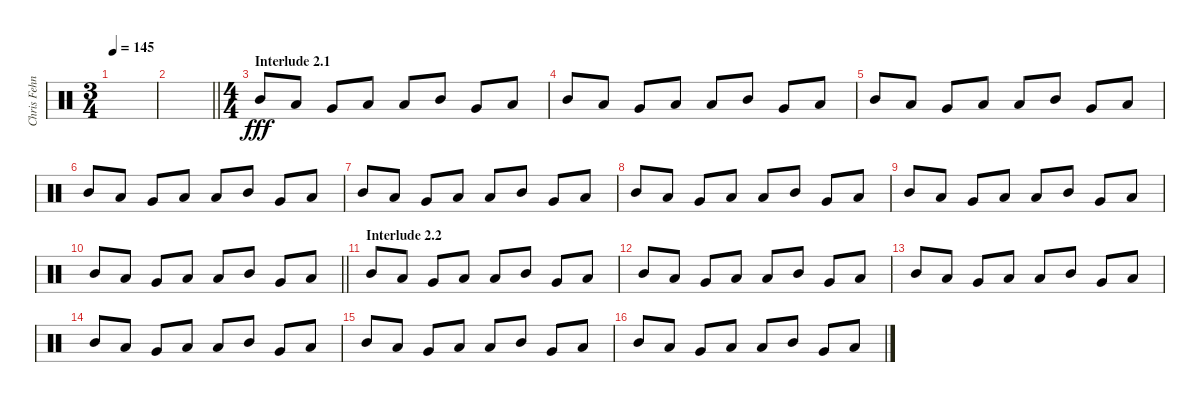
\track ("Chris Fehn" "Chris Fehn") {instrument percussion}
\staff {score}
\articulation defaults
\ts (3 4)
\tempo 145
\clef neutral
\ks c
|
\barLineRight lightlight
|
\ts (4 4)
\section ("" "Interlude 2.1")
"Mid Tom (hit)".8{dy fff} "Low Tom (hit)".8 "Very Low Tom (hit)".8 "Low Floor Tom (hit)".8 "Low Tom (hit)".8 "Mid Tom (hit)".8 "Very Low Tom (hit)".8 "Low Floor Tom (hit)".8 |
"Mid Tom (hit)".8 "Low Tom (hit)".8 "Very Low Tom (hit)".8 "Low Floor Tom (hit)".8 "Low Tom (hit)".8 "Mid Tom (hit)".8 "Very Low Tom (hit)".8 "Low Floor Tom (hit)".8 |
"Mid Tom (hit)".8 "Low Tom (hit)".8 "Very Low Tom (hit)".8 "Low Floor Tom (hit)".8 "Low Tom (hit)".8 "Mid Tom (hit)".8 "Very Low Tom (hit)".8 "Low Floor Tom (hit)".8 |
"Mid Tom (hit)".8 "Low Tom (hit)".8 "Very Low Tom (hit)".8 "Low Floor Tom (hit)".8 "Low Tom (hit)".8 "Mid Tom (hit)".8 "Very Low Tom (hit)".8 "Low Floor Tom (hit)".8 |
"Mid Tom (hit)".8 "Low Tom (hit)".8 "Very Low Tom (hit)".8 "Low Floor Tom (hit)".8 "Low Tom (hit)".8 "Mid Tom (hit)".8 "Very Low Tom (hit)".8 "Low Floor Tom (hit)".8 |
"Mid Tom (hit)".8 "Low Tom (hit)".8 "Very Low Tom (hit)".8 "Low Floor Tom (hit)".8 "Low Tom (hit)".8 "Mid Tom (hit)".8 "Very Low Tom (hit)".8 "Low Floor Tom (hit)".8 |
"Mid Tom (hit)".8 "Low Tom (hit)".8 "Very Low Tom (hit)".8 "Low Floor Tom (hit)".8 "Low Tom (hit)".8 "Mid Tom (hit)".8 "Very Low Tom (hit)".8 "Low Floor Tom (hit)".8 |
\barLineRight lightlight "Mid Tom (hit)".8 "Low Tom (hit)".8 "Very Low Tom (hit)".8 "Low Floor Tom (hit)".8 "Low Tom (hit)".8 "Mid Tom (hit)".8 "Very Low Tom (hit)".8 "Low Floor Tom (hit)".8
|
\section ("" "Interlude 2.2")
"Mid Tom (hit)".8 "Low Tom (hit)".8 "Very Low Tom (hit)".8 "Low Floor Tom (hit)".8 "Low Tom (hit)".8 "Mid Tom (hit)".8 "Very Low Tom (hit)".8 "Low Floor Tom (hit)".8 |
"Mid Tom (hit)".8 "Low Tom (hit)".8 "Very Low Tom (hit)".8 "Low Floor Tom (hit)".8 "Low Tom (hit)".8 "Mid Tom (hit)".8 "Very Low Tom (hit)".8 "Low Floor Tom (hit)".8 |
"Mid Tom (hit)".8 "Low Tom (hit)".8 "Very Low Tom (hit)".8 "Low Floor Tom (hit)".8 "Low Tom (hit)".8 "Mid Tom (hit)".8 "Very Low Tom (hit)".8 "Low Floor Tom (hit)".8 |
"Mid Tom (hit)".8 "Low Tom (hit)".8 "Very Low Tom (hit)".8 "Low Floor Tom (hit)".8 "Low Tom (hit)".8 "Mid Tom (hit)".8 "Very Low Tom (hit)".8 "Low Floor Tom (hit)".8 |
"Mid Tom (hit)".8 "Low Tom (hit)".8 "Very Low Tom (hit)".8 "Low Floor Tom (hit)".8 "Low Tom (hit)".8 "Mid Tom (hit)".8 "Very Low Tom (hit)".8 "Low Floor Tom (hit)".8 |
"Mid Tom (hit)".8 "Low Tom (hit)".8 "Very Low Tom (hit)".8 "Low Floor Tom (hit)".8 "Low Tom (hit)".8 "Mid Tom (hit)".8 "Very Low Tom (hit)".8 "Low Floor Tom (hit)".8
